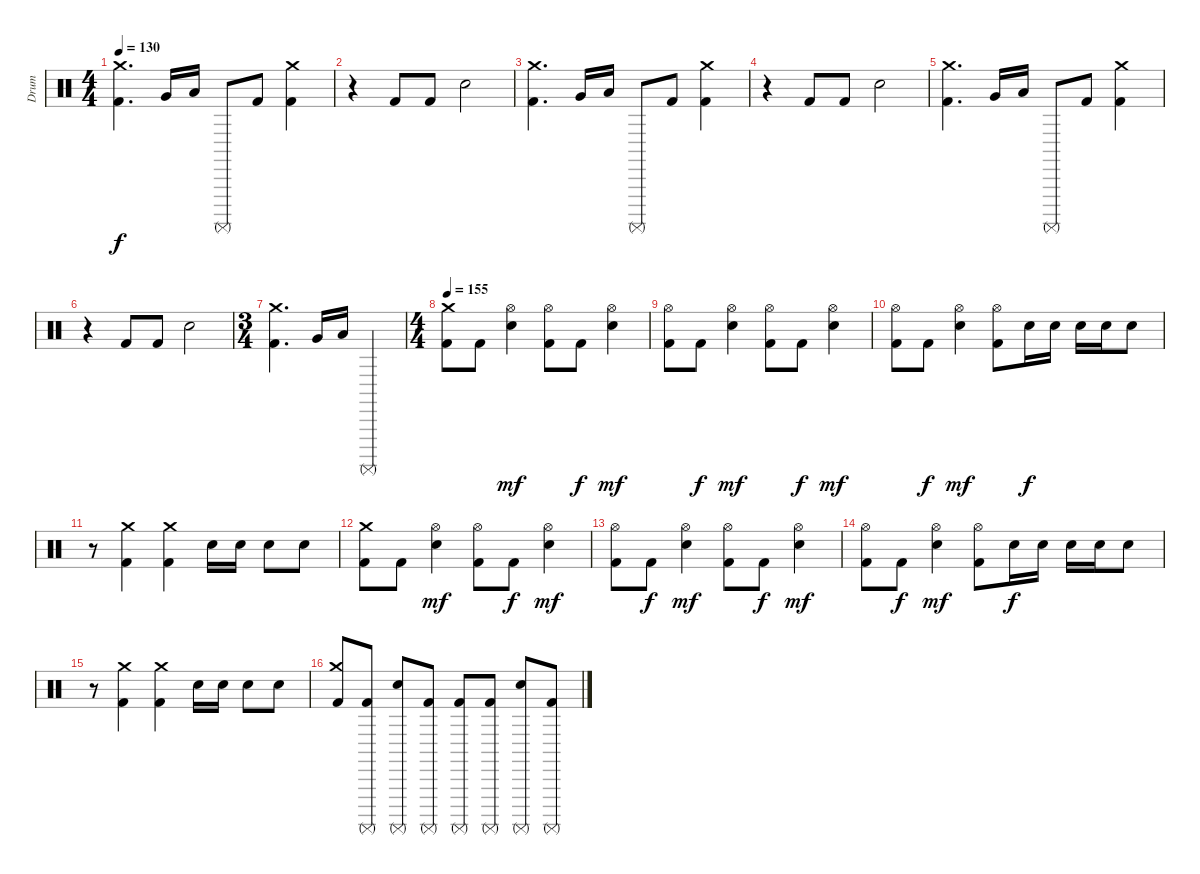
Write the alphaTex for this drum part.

\track ("Drum" "Drum") {instrument percussion}
\staff {score}
\articulation defaults
\ts (4 4)
\tempo 130
\clef neutral
\ks c
("Crash medium (hit)" "Kick (hit) 2").4{d dy f} "Very Low Tom (hit)".16 "Low Floor Tom (hit)".16 "Surdo (mute)".8 "Kick (hit) 2".8 ("Crash medium (hit)" "Kick (hit) 2").4 |
r.4 "Kick (hit) 2".8 "Kick (hit) 2".8 "Snare (hit) 2".2 |
("Crash medium (hit)" "Kick (hit) 2").4{d} "Very Low Tom (hit)".16 "Low Floor Tom (hit)".16 "Surdo (mute)".8 "Kick (hit) 2".8 ("Crash medium (hit)" "Kick (hit) 2").4 |
r.4 "Kick (hit) 2".8 "Kick (hit) 2".8 "Snare (hit) 2".2 |
("Crash medium (hit)" "Kick (hit) 2").4{d} "Very Low Tom (hit)".16 "Low Floor Tom (hit)".16 "Surdo (mute)".8 "Kick (hit) 2".8 ("Crash medium (hit)" "Kick (hit) 2").4 |
r.4 "Kick (hit) 2".8 "Kick (hit) 2".8 "Snare (hit) 2".2 |
\ts (3 4)
("Crash medium (hit)" "Kick (hit) 2").4{d} "Very Low Tom (hit)".16 "Low Floor Tom (hit)".16 "Surdo (mute)".4 |
\ts (4 4)
\tempo 155
("Crash medium (hit)" "Kick (hit) 2").8 "Kick (hit) 2".8 ("Hi-Hat (open)" "Snare (hit) 2").4{dy mf} ("Hi-Hat (open)" "Kick (hit) 2").8 "Kick (hit) 2".8{dy f} ("Hi-Hat (open)" "Snare (hit) 2").4{dy mf} |
("Hi-Hat (open)" "Kick (hit) 2").8 "Kick (hit) 2".8{dy f} ("Hi-Hat (open)" "Snare (hit) 2").4{dy mf} ("Hi-Hat (open)" "Kick (hit) 2").8 "Kick (hit) 2".8{dy f} ("Hi-Hat (open)" "Snare (hit) 2").4{dy mf} |
("Hi-Hat (open)" "Kick (hit) 2").8 "Kick (hit) 2".8{dy f} ("Hi-Hat (open)" "Snare (hit) 2").4{dy mf} ("Hi-Hat (open)" "Kick (hit) 2").8 "Snare (hit) 2".16{dy f} "Snare (hit) 2".16 "Snare (hit) 2".16 "Snare (hit) 2".16 "Snare (hit) 2".8 |
r.8 ("Crash medium (hit)" "Kick (hit) 2").4 ("Crash medium (hit)" "Kick (hit) 2").4 "Snare (hit) 2".16 "Snare (hit) 2".16 "Snare (hit) 2".8 "Snare (hit) 2".8 |
("Crash medium (hit)" "Kick (hit) 2").8 "Kick (hit) 2".8 ("Hi-Hat (open)" "Snare (hit) 2").4{dy mf} ("Hi-Hat (open)" "Kick (hit) 2").8 "Kick (hit) 2".8{dy f} ("Hi-Hat (open)" "Snare (hit) 2").4{dy mf} |
("Hi-Hat (open)" "Kick (hit) 2").8 "Kick (hit) 2".8{dy f} ("Hi-Hat (open)" "Snare (hit) 2").4{dy mf} ("Hi-Hat (open)" "Kick (hit) 2").8 "Kick (hit) 2".8{dy f} ("Hi-Hat (open)" "Snare (hit) 2").4{dy mf} |
("Hi-Hat (open)" "Kick (hit) 2").8 "Kick (hit) 2".8{dy f} ("Hi-Hat (open)" "Snare (hit) 2").4{dy mf} ("Hi-Hat (open)" "Kick (hit) 2").8 "Snare (hit) 2".16{dy f} "Snare (hit) 2".16 "Snare (hit) 2".16 "Snare (hit) 2".16 "Snare (hit) 2".8 |
r.8 ("Crash medium (hit)" "Kick (hit) 2").4 ("Crash medium (hit)" "Kick (hit) 2").4 "Snare (hit) 2".16 "Snare (hit) 2".16 "Snare (hit) 2".8 "Snare (hit) 2".8 |
("Crash medium (hit)" "Kick (hit) 2").8 ("Surdo (mute)" "Kick (hit) 2").8 ("Surdo (mute)" "Snare (hit) 2").8 ("Surdo (mute)" "Kick (hit) 2").8 ("Surdo (mute)" "Kick (hit) 2").8 ("Surdo (mute)" "Kick (hit) 2").8 ("Surdo (mute)" "Snare (hit) 2").8 ("Surdo (mute)" "Kick (hit) 2").8
